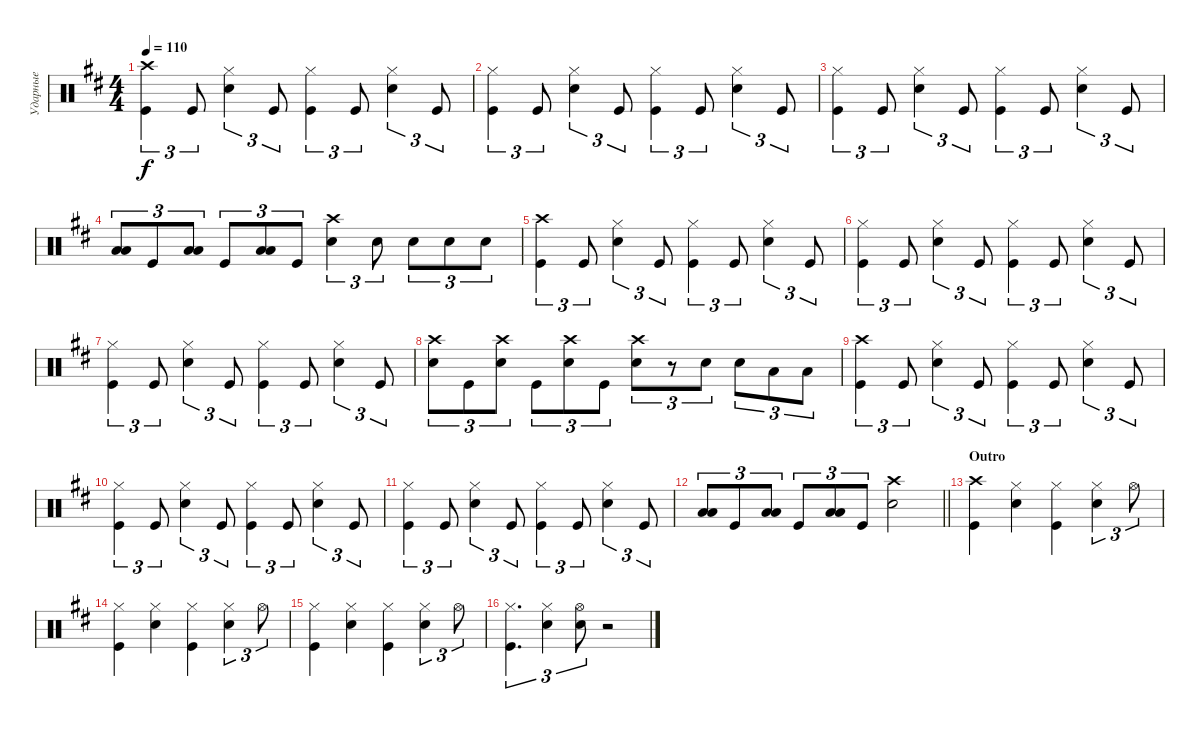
\track ("Ударные" "Ударные") {instrument percussion}
\staff {score}
\articulation defaults
\ts (4 4)
\tempo 110
\clef neutral
\ks bminor
("Kick (hit)" "Crash high (hit)").4{tu (3 2) dy f} "Kick (hit)".8{tu (3 2)} ("Snare (hit) 2" "Hi-Hat (closed)").4{tu (3 2)} "Kick (hit)".8{tu (3 2)} ("Kick (hit)" "Hi-Hat (closed)").4{tu (3 2)} "Kick (hit)".8{tu (3 2)} ("Snare (hit) 2" "Hi-Hat (closed)").4{tu (3 2)} "Kick (hit)".8{tu (3 2)} |
("Kick (hit)" "Hi-Hat (closed)").4{tu (3 2)} "Kick (hit)".8{tu (3 2)} ("Snare (hit) 2" "Hi-Hat (closed)").4{tu (3 2)} "Kick (hit)".8{tu (3 2)} ("Kick (hit)" "Hi-Hat (closed)").4{tu (3 2)} "Kick (hit)".8{tu (3 2)} ("Snare (hit) 2" "Hi-Hat (closed)").4{tu (3 2)} "Kick (hit)".8{tu (3 2)} |
("Kick (hit)" "Hi-Hat (closed)").4{tu (3 2)} "Kick (hit)".8{tu (3 2)} ("Snare (hit) 2" "Hi-Hat (closed)").4{tu (3 2)} "Kick (hit)".8{tu (3 2)} ("Kick (hit)" "Hi-Hat (closed)").4{tu (3 2)} "Kick (hit)".8{tu (3 2)} ("Snare (hit) 2" "Hi-Hat (closed)").4{tu (3 2)} "Kick (hit)".8{tu (3 2)} |
("Low Tom (hit)" "Low Tom (hit)").8{tu (3 2) bd 120} "Kick (hit)".8{tu (3 2)} ("Low Tom (hit)" "Low Tom (hit)").8{tu (3 2) bd 120} "Kick (hit)".8{tu (3 2)} ("Low Tom (hit)" "Low Tom (hit)").8{tu (3 2) bd 120} "Kick (hit)".8{tu (3 2)} ("Snare (hit) 2" "Crash high (hit)").4{tu (3 2)} "Snare (hit) 2".8{tu (3 2)} "Snare (hit) 2".8{tu (3 2)} "Snare (hit) 2".8{tu (3 2)} "Snare (hit) 2".8{tu (3 2)} |
("Kick (hit)" "Crash high (hit)").4{tu (3 2)} "Kick (hit)".8{tu (3 2)} ("Snare (hit) 2" "Hi-Hat (closed)").4{tu (3 2)} "Kick (hit)".8{tu (3 2)} ("Kick (hit)" "Hi-Hat (closed)").4{tu (3 2)} "Kick (hit)".8{tu (3 2)} ("Snare (hit) 2" "Hi-Hat (closed)").4{tu (3 2)} "Kick (hit)".8{tu (3 2)} |
("Kick (hit)" "Hi-Hat (closed)").4{tu (3 2)} "Kick (hit)".8{tu (3 2)} ("Snare (hit) 2" "Hi-Hat (closed)").4{tu (3 2)} "Kick (hit)".8{tu (3 2)} ("Kick (hit)" "Hi-Hat (closed)").4{tu (3 2)} "Kick (hit)".8{tu (3 2)} ("Snare (hit) 2" "Hi-Hat (closed)").4{tu (3 2)} "Kick (hit)".8{tu (3 2)} |
("Kick (hit)" "Hi-Hat (closed)").4{tu (3 2)} "Kick (hit)".8{tu (3 2)} ("Snare (hit) 2" "Hi-Hat (closed)").4{tu (3 2)} "Kick (hit)".8{tu (3 2)} ("Kick (hit)" "Hi-Hat (closed)").4{tu (3 2)} "Kick (hit)".8{tu (3 2)} ("Snare (hit) 2" "Hi-Hat (closed)").4{tu (3 2)} "Kick (hit)".8{tu (3 2)} |
("Snare (hit) 2" "Crash high (hit)").8{tu (3 2)} "Kick (hit)".8{tu (3 2)} ("Snare (hit) 2" "Crash high (hit)").8{tu (3 2)} "Kick (hit)".8{tu (3 2)} ("Snare (hit) 2" "Crash high (hit)").8{tu (3 2)} "Kick (hit)".8{tu (3 2)} ("Snare (hit) 2" "Crash high (hit)").8{tu (3 2)} r.8{tu (3 2)} "Snare (hit) 2".8{tu (3 2)} "Snare (hit) 2".8{tu (3 2)} "Low Tom (hit)".8{tu (3 2)} "Low Tom (hit)".8{tu (3 2)} |
("Kick (hit)" "Crash high (hit)").4{tu (3 2)} "Kick (hit)".8{tu (3 2)} ("Snare (hit) 2" "Hi-Hat (closed)").4{tu (3 2)} "Kick (hit)".8{tu (3 2)} ("Kick (hit)" "Hi-Hat (closed)").4{tu (3 2)} "Kick (hit)".8{tu (3 2)} ("Snare (hit) 2" "Hi-Hat (closed)").4{tu (3 2)} "Kick (hit)".8{tu (3 2)} |
("Kick (hit)" "Hi-Hat (closed)").4{tu (3 2)} "Kick (hit)".8{tu (3 2)} ("Snare (hit) 2" "Hi-Hat (closed)").4{tu (3 2)} "Kick (hit)".8{tu (3 2)} ("Kick (hit)" "Hi-Hat (closed)").4{tu (3 2)} "Kick (hit)".8{tu (3 2)} ("Snare (hit) 2" "Hi-Hat (closed)").4{tu (3 2)} "Kick (hit)".8{tu (3 2)} |
("Kick (hit)" "Hi-Hat (closed)").4{tu (3 2)} "Kick (hit)".8{tu (3 2)} ("Snare (hit) 2" "Hi-Hat (closed)").4{tu (3 2)} "Kick (hit)".8{tu (3 2)} ("Kick (hit)" "Hi-Hat (closed)").4{tu (3 2)} "Kick (hit)".8{tu (3 2)} ("Snare (hit) 2" "Hi-Hat (closed)").4{tu (3 2)} "Kick (hit)".8{tu (3 2)} |
\barLineRight lightlight
("Low Tom (hit)" "Low Tom (hit)").8{tu (3 2) bd 120} "Kick (hit)".8{tu (3 2)} ("Low Tom (hit)" "Low Tom (hit)").8{tu (3 2) bd 120} "Kick (hit)".8{tu (3 2)} ("Low Tom (hit)" "Low Tom (hit)").8{tu (3 2) bd 120} "Kick (hit)".8{tu (3 2)} ("Snare (hit) 2" "Crash high (hit)").2 |
\section ("" "Outro")
("Kick (hit)" "Crash high (hit)").4 ("Hi-Hat (closed)" "Snare (hit) 2").4 ("Hi-Hat (closed)" "Kick (hit)").4 ("Snare (hit) 2" "Hi-Hat (closed)").4{tu (3 2)} "Hi-Hat (open)".8{tu (3 2)} |
("Kick (hit)" "Hi-Hat (closed)").4 ("Hi-Hat (closed)" "Snare (hit) 2").4 ("Hi-Hat (closed)" "Kick (hit)").4 ("Snare (hit) 2" "Hi-Hat (closed)").4{tu (3 2)} "Hi-Hat (open)".8{tu (3 2)} |
("Kick (hit)" "Hi-Hat (closed)").4 ("Hi-Hat (closed)" "Snare (hit) 2").4 ("Hi-Hat (closed)" "Kick (hit)").4 ("Snare (hit) 2" "Hi-Hat (closed)").4{tu (3 2)} "Hi-Hat (open)".8{tu (3 2)} |
("Kick (hit)" "Hi-Hat (closed)").4{d tu (3 2)} ("Hi-Hat (closed)" "Snare (hit) 2").4{tu (3 2)} ("Snare (hit) 2" "Hi-Hat (open)").8{tu (3 2)} r.2
